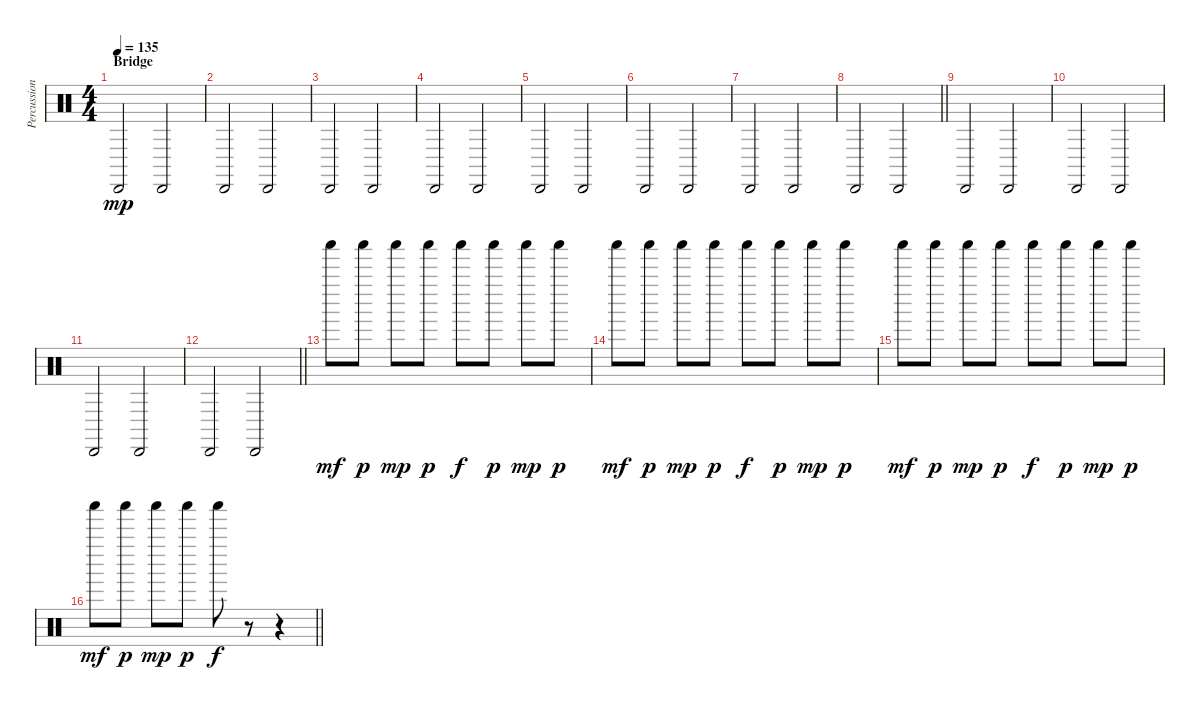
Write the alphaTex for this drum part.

\track ("Percussion" "Percussion") {instrument percussion}
\staff {score}
\articulation defaults
\ts (4 4)
\section ("" "Bridge")
\tempo 135
\clef neutral
\ks c "Cabasa (hit)".2{dy mp} "Cabasa (hit)".2
|
"Cabasa (hit)".2 "Cabasa (hit)".2 |
"Cabasa (hit)".2 "Cabasa (hit)".2 |
"Cabasa (hit)".2 "Cabasa (hit)".2 |
"Cabasa (hit)".2 "Cabasa (hit)".2 |
"Cabasa (hit)".2 "Cabasa (hit)".2 |
"Cabasa (hit)".2 "Cabasa (hit)".2 |
\barLineRight lightlight "Cabasa (hit)".2 "Cabasa (hit)".2
|
"Cabasa (hit)".2 "Cabasa (hit)".2 |
"Cabasa (hit)".2 "Cabasa (hit)".2 |
"Cabasa (hit)".2 "Cabasa (hit)".2 |
\barLineRight lightlight "Cabasa (hit)".2 "Cabasa (hit)".2
|
\section ("" " ")
"Shaker (hit)".8{dy mf} "Shaker (hit)".8{dy p} "Shaker (hit)".8{dy mp} "Shaker (hit)".8{dy p} "Shaker (hit)".8{dy f} "Shaker (hit)".8{dy p} "Shaker (hit)".8{dy mp} "Shaker (hit)".8{dy p} |
"Shaker (hit)".8{dy mf} "Shaker (hit)".8{dy p} "Shaker (hit)".8{dy mp} "Shaker (hit)".8{dy p} "Shaker (hit)".8{dy f} "Shaker (hit)".8{dy p} "Shaker (hit)".8{dy mp} "Shaker (hit)".8{dy p} |
"Shaker (hit)".8{dy mf} "Shaker (hit)".8{dy p} "Shaker (hit)".8{dy mp} "Shaker (hit)".8{dy p} "Shaker (hit)".8{dy f} "Shaker (hit)".8{dy p} "Shaker (hit)".8{dy mp} "Shaker (hit)".8{dy p} |
\barLineRight lightlight "Shaker (hit)".8{dy mf} "Shaker (hit)".8{dy p} "Shaker (hit)".8{dy mp} "Shaker (hit)".8{dy p} "Shaker (hit)".8{dy f}
r.8 r.4
